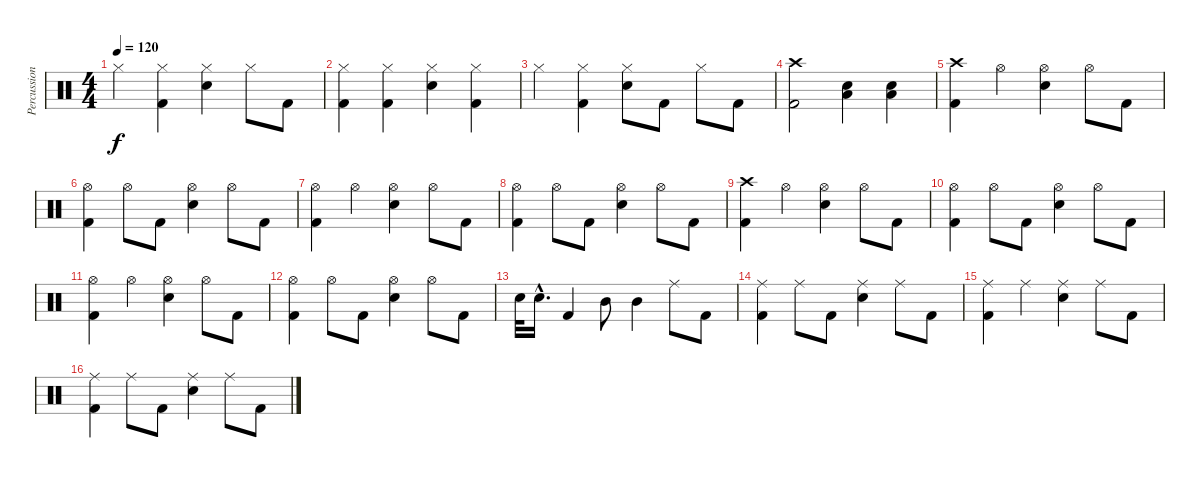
\track ("Percussion" "Percussion") {instrument percussion}
\staff {score}
\articulation defaults
\ts (4 4)
\tempo 120
\clef neutral
\ks c "Hi-Hat (closed)".4{dy f}
("Hi-Hat (closed)" "Kick (hit) 2").4 ("Hi-Hat (closed)" "Snare (hit) 2").4 "Hi-Hat (closed)".8 "Kick (hit) 2".8 |
("Hi-Hat (closed)" "Kick (hit) 2").4 ("Hi-Hat (closed)" "Kick (hit) 2").4 ("Hi-Hat (closed)" "Snare (hit) 2").4 ("Hi-Hat (closed)" "Kick (hit) 2").4 |
"Hi-Hat (closed)".4 ("Hi-Hat (closed)" "Kick (hit) 2").4 ("Hi-Hat (closed)" "Snare (hit) 2").8 "Kick (hit) 2".8 "Hi-Hat (closed)".8 "Kick (hit) 2".8 |
("Crash high (hit)" "Kick (hit) 2").2 ("Low Tom (hit)" "Snare (hit) 2").4 ("Low Tom (hit)" "Snare (hit) 2").4 |
("Crash high (hit)" "Kick (hit) 2").4 "Hi-Hat (open)".4 ("Hi-Hat (open)" "Snare (hit) 2").4 "Hi-Hat (open)".8 "Kick (hit) 2".8 |
("Hi-Hat (open)" "Kick (hit) 2").4 "Hi-Hat (open)".8 "Kick (hit) 2".8 ("Hi-Hat (open)" "Snare (hit) 2").4 "Hi-Hat (open)".8 "Kick (hit) 2".8 |
("Hi-Hat (open)" "Kick (hit) 2").4 "Hi-Hat (open)".4 ("Hi-Hat (open)" "Snare (hit) 2").4 "Hi-Hat (open)".8 "Kick (hit) 2".8 |
("Hi-Hat (open)" "Kick (hit) 2").4 "Hi-Hat (open)".8 "Kick (hit) 2".8 ("Hi-Hat (open)" "Snare (hit) 2").4 "Hi-Hat (open)".8 "Kick (hit) 2".8 |
("Crash high (hit)" "Kick (hit) 2").4 "Hi-Hat (open)".4 ("Hi-Hat (open)" "Snare (hit) 2").4 "Hi-Hat (open)".8 "Kick (hit) 2".8 |
("Hi-Hat (open)" "Kick (hit) 2").4 "Hi-Hat (open)".8 "Kick (hit) 2".8 ("Hi-Hat (open)" "Snare (hit) 2").4 "Hi-Hat (open)".8 "Kick (hit) 2".8 |
("Hi-Hat (open)" "Kick (hit) 2").4 "Hi-Hat (open)".4 ("Hi-Hat (open)" "Snare (hit) 2").4 "Hi-Hat (open)".8 "Kick (hit) 2".8 |
("Hi-Hat (open)" "Kick (hit) 2").4 "Hi-Hat (open)".8 "Kick (hit) 2".8 ("Hi-Hat (open)" "Snare (hit) 2").4 "Hi-Hat (open)".8 "Kick (hit) 2".8 |
"Snare (hit) 2".32 "Snare (hit) 2"{hac}.16{d} "Kick (hit) 2".4 "Mid Tom (hit)".8 "Mid Tom (hit)".4 "Ride (middle)".8 "Kick (hit) 2".8 |
("Ride (middle)" "Kick (hit) 2").4 "Ride (middle)".8 "Kick (hit) 2".8 ("Ride (middle)" "Snare (hit) 2").4 "Ride (middle)".8 "Kick (hit) 2".8 |
("Ride (middle)" "Kick (hit) 2").4 "Ride (middle)".4 ("Ride (middle)" "Snare (hit) 2").4 "Ride (middle)".8 "Kick (hit) 2".8 |
("Ride (middle)" "Kick (hit) 2").4 "Ride (middle)".8 "Kick (hit) 2".8 ("Ride (middle)" "Snare (hit) 2").4 "Ride (middle)".8 "Kick (hit) 2".8
